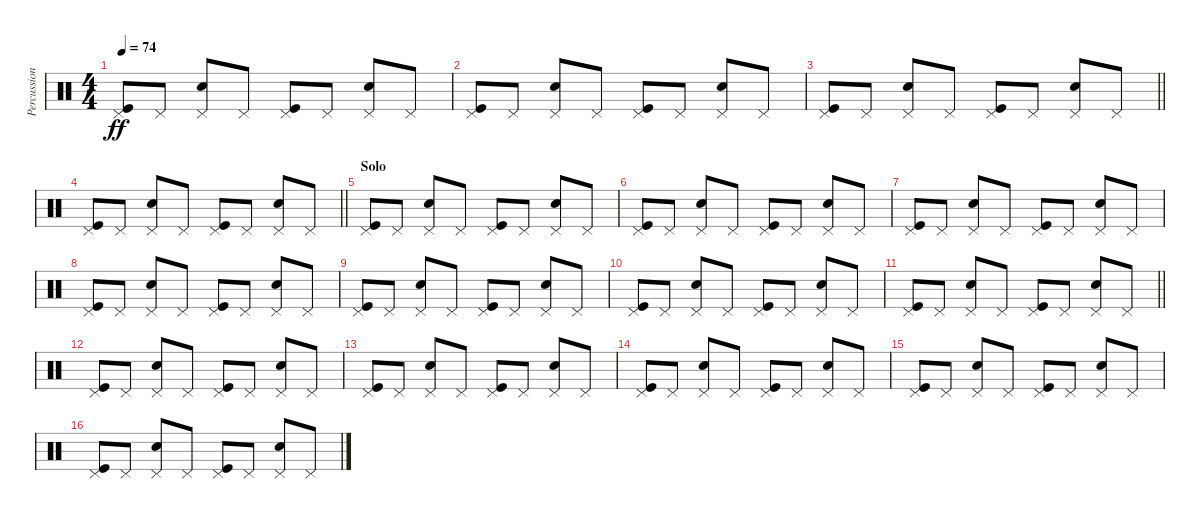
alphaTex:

\track ("Percussion" "Percussion") {instrument percussion}
\staff {score}
\articulation defaults
\ts (4 4)
\tempo 74
\clef neutral
\ks c
("Pedal Hi-Hat (hit)" "Kick (hit)").8{dy ff} "Pedal Hi-Hat (hit)".8 ("Pedal Hi-Hat (hit)" "Snare (hit) 2").8 "Pedal Hi-Hat (hit)".8 ("Pedal Hi-Hat (hit)" "Kick (hit)").8 "Pedal Hi-Hat (hit)".8 ("Pedal Hi-Hat (hit)" "Snare (hit) 2").8 "Pedal Hi-Hat (hit)".8 |
("Pedal Hi-Hat (hit)" "Kick (hit)").8 "Pedal Hi-Hat (hit)".8 ("Pedal Hi-Hat (hit)" "Snare (hit) 2").8 "Pedal Hi-Hat (hit)".8 ("Pedal Hi-Hat (hit)" "Kick (hit)").8 "Pedal Hi-Hat (hit)".8 ("Pedal Hi-Hat (hit)" "Snare (hit) 2").8 "Pedal Hi-Hat (hit)".8 |
\barLineRight lightlight
("Pedal Hi-Hat (hit)" "Kick (hit)").8 "Pedal Hi-Hat (hit)".8 ("Pedal Hi-Hat (hit)" "Snare (hit) 2").8 "Pedal Hi-Hat (hit)".8 ("Pedal Hi-Hat (hit)" "Kick (hit)").8 "Pedal Hi-Hat (hit)".8 ("Pedal Hi-Hat (hit)" "Snare (hit) 2").8 "Pedal Hi-Hat (hit)".8 |
\barLineRight lightlight
("Pedal Hi-Hat (hit)" "Kick (hit)").8 "Pedal Hi-Hat (hit)".8 ("Pedal Hi-Hat (hit)" "Snare (hit) 2").8 "Pedal Hi-Hat (hit)".8 ("Pedal Hi-Hat (hit)" "Kick (hit)").8 "Pedal Hi-Hat (hit)".8 ("Pedal Hi-Hat (hit)" "Snare (hit) 2").8 "Pedal Hi-Hat (hit)".8 |
\section ("" "Solo")
("Pedal Hi-Hat (hit)" "Kick (hit)").8 "Pedal Hi-Hat (hit)".8 ("Pedal Hi-Hat (hit)" "Snare (hit) 2").8 "Pedal Hi-Hat (hit)".8 ("Pedal Hi-Hat (hit)" "Kick (hit)").8 "Pedal Hi-Hat (hit)".8 ("Pedal Hi-Hat (hit)" "Snare (hit) 2").8 "Pedal Hi-Hat (hit)".8 |
("Pedal Hi-Hat (hit)" "Kick (hit)").8 "Pedal Hi-Hat (hit)".8 ("Pedal Hi-Hat (hit)" "Snare (hit) 2").8 "Pedal Hi-Hat (hit)".8 ("Pedal Hi-Hat (hit)" "Kick (hit)").8 "Pedal Hi-Hat (hit)".8 ("Pedal Hi-Hat (hit)" "Snare (hit) 2").8 "Pedal Hi-Hat (hit)".8 |
("Pedal Hi-Hat (hit)" "Kick (hit)").8 "Pedal Hi-Hat (hit)".8 ("Pedal Hi-Hat (hit)" "Snare (hit) 2").8 "Pedal Hi-Hat (hit)".8 ("Pedal Hi-Hat (hit)" "Kick (hit)").8 "Pedal Hi-Hat (hit)".8 ("Pedal Hi-Hat (hit)" "Snare (hit) 2").8 "Pedal Hi-Hat (hit)".8 |
("Pedal Hi-Hat (hit)" "Kick (hit)").8 "Pedal Hi-Hat (hit)".8 ("Pedal Hi-Hat (hit)" "Snare (hit) 2").8 "Pedal Hi-Hat (hit)".8 ("Pedal Hi-Hat (hit)" "Kick (hit)").8 "Pedal Hi-Hat (hit)".8 ("Pedal Hi-Hat (hit)" "Snare (hit) 2").8 "Pedal Hi-Hat (hit)".8 |
("Pedal Hi-Hat (hit)" "Kick (hit)").8 "Pedal Hi-Hat (hit)".8 ("Pedal Hi-Hat (hit)" "Snare (hit) 2").8 "Pedal Hi-Hat (hit)".8 ("Pedal Hi-Hat (hit)" "Kick (hit)").8 "Pedal Hi-Hat (hit)".8 ("Pedal Hi-Hat (hit)" "Snare (hit) 2").8 "Pedal Hi-Hat (hit)".8 |
("Pedal Hi-Hat (hit)" "Kick (hit)").8 "Pedal Hi-Hat (hit)".8 ("Pedal Hi-Hat (hit)" "Snare (hit) 2").8 "Pedal Hi-Hat (hit)".8 ("Pedal Hi-Hat (hit)" "Kick (hit)").8 "Pedal Hi-Hat (hit)".8 ("Pedal Hi-Hat (hit)" "Snare (hit) 2").8 "Pedal Hi-Hat (hit)".8 |
\barLineRight lightlight
("Pedal Hi-Hat (hit)" "Kick (hit)").8 "Pedal Hi-Hat (hit)".8 ("Pedal Hi-Hat (hit)" "Snare (hit) 2").8 "Pedal Hi-Hat (hit)".8 ("Pedal Hi-Hat (hit)" "Kick (hit)").8 "Pedal Hi-Hat (hit)".8 ("Pedal Hi-Hat (hit)" "Snare (hit) 2").8 "Pedal Hi-Hat (hit)".8 |
("Pedal Hi-Hat (hit)" "Kick (hit)").8 "Pedal Hi-Hat (hit)".8 ("Pedal Hi-Hat (hit)" "Snare (hit) 2").8 "Pedal Hi-Hat (hit)".8 ("Pedal Hi-Hat (hit)" "Kick (hit)").8 "Pedal Hi-Hat (hit)".8 ("Pedal Hi-Hat (hit)" "Snare (hit) 2").8 "Pedal Hi-Hat (hit)".8 |
("Pedal Hi-Hat (hit)" "Kick (hit)").8 "Pedal Hi-Hat (hit)".8 ("Pedal Hi-Hat (hit)" "Snare (hit) 2").8 "Pedal Hi-Hat (hit)".8 ("Pedal Hi-Hat (hit)" "Kick (hit)").8 "Pedal Hi-Hat (hit)".8 ("Pedal Hi-Hat (hit)" "Snare (hit) 2").8 "Pedal Hi-Hat (hit)".8 |
("Pedal Hi-Hat (hit)" "Kick (hit)").8 "Pedal Hi-Hat (hit)".8 ("Pedal Hi-Hat (hit)" "Snare (hit) 2").8 "Pedal Hi-Hat (hit)".8 ("Pedal Hi-Hat (hit)" "Kick (hit)").8 "Pedal Hi-Hat (hit)".8 ("Pedal Hi-Hat (hit)" "Snare (hit) 2").8 "Pedal Hi-Hat (hit)".8 |
("Pedal Hi-Hat (hit)" "Kick (hit)").8 "Pedal Hi-Hat (hit)".8 ("Pedal Hi-Hat (hit)" "Snare (hit) 2").8 "Pedal Hi-Hat (hit)".8 ("Pedal Hi-Hat (hit)" "Kick (hit)").8 "Pedal Hi-Hat (hit)".8 ("Pedal Hi-Hat (hit)" "Snare (hit) 2").8 "Pedal Hi-Hat (hit)".8 |
("Pedal Hi-Hat (hit)" "Kick (hit)").8 "Pedal Hi-Hat (hit)".8 ("Pedal Hi-Hat (hit)" "Snare (hit) 2").8 "Pedal Hi-Hat (hit)".8 ("Pedal Hi-Hat (hit)" "Kick (hit)").8 "Pedal Hi-Hat (hit)".8 ("Pedal Hi-Hat (hit)" "Snare (hit) 2").8 "Pedal Hi-Hat (hit)".8
